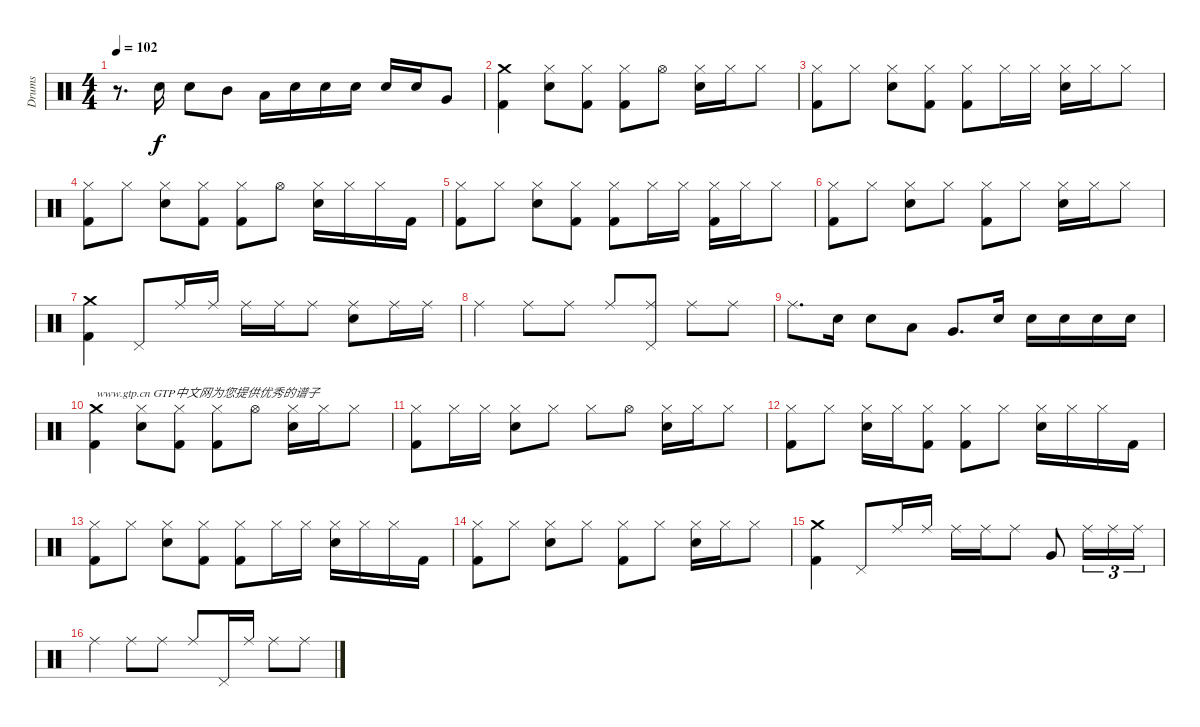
\track ("Drums" "Drums") {instrument percussion}
\staff {score}
\articulation defaults
\ts (4 4)
\tempo 102
\clef neutral
\ks c
r.8{d dy f} "Snare (hit) 2".16 "Snare (hit) 2".8 "Mid Tom (hit)".8 "Low Tom (hit)".16 "Snare (hit) 2".16 "Snare (hit) 2".16 "Snare (hit) 2".16 "Snare (hit) 2".16 "Snare (hit) 2".16 "Very Low Tom (hit)".8 |
("Crash medium (hit)" "Kick (hit) 2").4 ("Hi-Hat (closed)" "Snare (hit) 2").8 ("Hi-Hat (closed)" "Kick (hit) 2").8 ("Hi-Hat (closed)" "Kick (hit) 2").8 "Hi-Hat (open)".8 ("Hi-Hat (closed)" "Snare (hit) 2").16 "Hi-Hat (closed)".16 "Hi-Hat (closed)".8 |
("Hi-Hat (closed)" "Kick (hit) 2").8 "Hi-Hat (closed)".8 ("Hi-Hat (closed)" "Snare (hit) 2").8 ("Hi-Hat (closed)" "Kick (hit) 2").8 ("Hi-Hat (closed)" "Kick (hit) 2").8 "Hi-Hat (closed)".16 "Hi-Hat (closed)".16 ("Hi-Hat (closed)" "Snare (hit) 2").16 "Hi-Hat (closed)".16 "Hi-Hat (closed)".8 |
("Hi-Hat (closed)" "Kick (hit) 2").8 "Hi-Hat (closed)".8 ("Hi-Hat (closed)" "Snare (hit) 2").8 ("Hi-Hat (closed)" "Kick (hit) 2").8 ("Hi-Hat (closed)" "Kick (hit) 2").8 "Hi-Hat (open)".8 ("Hi-Hat (closed)" "Snare (hit) 2").16 "Hi-Hat (closed)".16 "Hi-Hat (closed)".16 "Kick (hit) 2".16 |
("Hi-Hat (closed)" "Kick (hit) 2").8 "Hi-Hat (closed)".8 ("Hi-Hat (closed)" "Snare (hit) 2").8 ("Hi-Hat (closed)" "Kick (hit) 2").8 ("Hi-Hat (closed)" "Kick (hit) 2").8 "Hi-Hat (closed)".16 "Hi-Hat (closed)".16 ("Hi-Hat (closed)" "Kick (hit) 2").16 "Hi-Hat (closed)".16 "Hi-Hat (closed)".8 |
("Hi-Hat (closed)" "Kick (hit) 2").8 "Hi-Hat (closed)".8 ("Hi-Hat (closed)" "Snare (hit) 2").8 "Hi-Hat (closed)".8 ("Hi-Hat (closed)" "Kick (hit) 2").8 "Hi-Hat (closed)".8 ("Hi-Hat (closed)" "Snare (hit) 2").16 "Hi-Hat (closed)".16 "Hi-Hat (closed)".8 |
("Crash medium (hit)" "Kick (hit) 2").4 "Pedal Hi-Hat (hit)".8 "Ride (middle)".16 "Ride (middle)".16 "Ride (middle)".16 "Ride (middle)".16 "Ride (middle)".8 ("Ride (middle)" "Snare (hit) 2").8 "Ride (middle)".16 "Ride (middle)".16 |
"Ride (middle)".4 "Ride (middle)".8 "Ride (middle)".8 "Ride (middle)".8 ("Ride (middle)" "Pedal Hi-Hat (hit)").8 "Ride (middle)".8 "Ride (middle)".8 |
"Ride (middle)".8{d} "Snare (hit) 2".16 "Snare (hit) 2".8 "Low Tom (hit)".8 "Very Low Tom (hit)".8{d} "Snare (hit) 2".16 "Snare (hit) 2".16 "Snare (hit) 2".16 "Snare (hit) 2".16 "Snare (hit) 2".16 |
("Crash medium (hit)" "Kick (hit) 2").4{txt "www.gtp.cn GTP中文网为您提供优秀的谱子"} ("Hi-Hat (closed)" "Snare (hit) 2").8 ("Hi-Hat (closed)" "Kick (hit) 2").8 ("Hi-Hat (closed)" "Kick (hit) 2").8 "Hi-Hat (open)".8 ("Hi-Hat (closed)" "Snare (hit) 2").16 "Hi-Hat (closed)".16 "Hi-Hat (closed)".8 |
("Hi-Hat (closed)" "Kick (hit) 2").8 "Hi-Hat (closed)".16 "Hi-Hat (closed)".16 ("Hi-Hat (closed)" "Snare (hit) 2").8 "Hi-Hat (closed)".8 "Hi-Hat (closed)".8 "Hi-Hat (open)".8 ("Hi-Hat (closed)" "Snare (hit) 2").16 "Hi-Hat (closed)".16 "Hi-Hat (closed)".8 |
("Hi-Hat (closed)" "Kick (hit) 2").8 "Hi-Hat (closed)".8 ("Hi-Hat (closed)" "Snare (hit) 2").16 "Hi-Hat (closed)".16 ("Hi-Hat (closed)" "Kick (hit) 2").8 ("Hi-Hat (closed)" "Kick (hit) 2").8 "Hi-Hat (closed)".8 ("Hi-Hat (closed)" "Snare (hit) 2").16 "Hi-Hat (closed)".16 "Hi-Hat (closed)".16 "Kick (hit) 2".16 |
("Hi-Hat (closed)" "Kick (hit) 2").8 "Hi-Hat (closed)".8 ("Hi-Hat (closed)" "Snare (hit) 2").8 ("Hi-Hat (closed)" "Kick (hit) 2").8 ("Hi-Hat (closed)" "Kick (hit) 2").8 "Hi-Hat (closed)".16 "Hi-Hat (closed)".16 ("Hi-Hat (closed)" "Snare (hit) 2").16 "Hi-Hat (closed)".16 "Hi-Hat (closed)".16 "Kick (hit) 2".16 |
("Hi-Hat (closed)" "Kick (hit) 2").8 "Hi-Hat (closed)".8 ("Hi-Hat (closed)" "Snare (hit) 2").8 "Hi-Hat (closed)".8 ("Hi-Hat (closed)" "Kick (hit) 2").8 "Hi-Hat (closed)".8 ("Hi-Hat (closed)" "Snare (hit) 2").16 "Hi-Hat (closed)".16 "Hi-Hat (closed)".8 |
("Crash medium (hit)" "Kick (hit) 2").4 "Pedal Hi-Hat (hit)".8 "Ride (middle)".16 "Ride (middle)".16 "Ride (middle)".16 "Ride (middle)".16 "Ride (middle)".8 "Very Low Tom (hit)".8 "Ride (middle)".16{tu (3 2)} "Ride (middle)".16{tu (3 2)} "Ride (middle)".16{tu (3 2)} |
"Ride (middle)".4 "Ride (middle)".8 "Ride (middle)".8 "Ride (middle)".8 "Pedal Hi-Hat (hit)".16 "Ride (middle)".16 "Ride (middle)".8 "Ride (middle)".8
